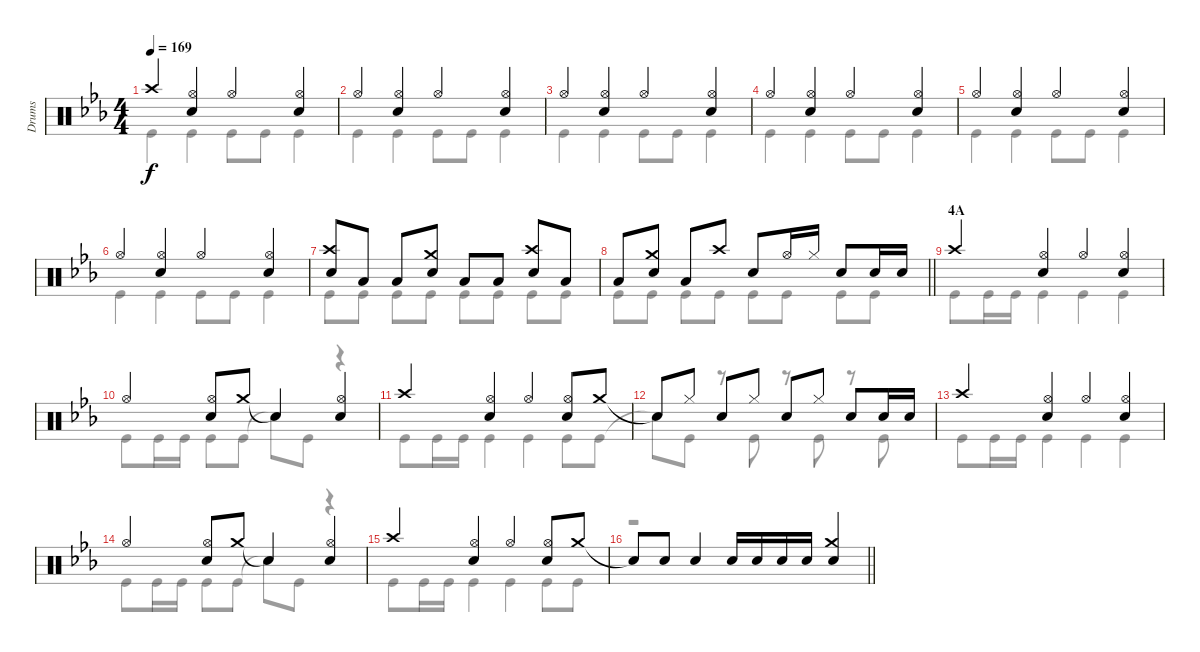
\track ("Drums" "Drums") {instrument percussion}
\staff {score}
\articulation defaults
\voice
\ts (4 4)
\tempo 169
\clef neutral
\ks eb "Crash high (hit)".4{dy f}
("Hi-Hat (open)" "Snare (hit) 2").4 "Hi-Hat (open)".4 ("Hi-Hat (open)" "Snare (hit) 2").4 |
"Hi-Hat (open)".4 ("Hi-Hat (open)" "Snare (hit) 2").4 "Hi-Hat (open)".4 ("Hi-Hat (open)" "Snare (hit) 2").4 |
"Hi-Hat (open)".4 ("Hi-Hat (open)" "Snare (hit) 2").4 "Hi-Hat (open)".4 ("Hi-Hat (open)" "Snare (hit) 2").4 |
"Hi-Hat (open)".4 ("Hi-Hat (open)" "Snare (hit) 2").4 "Hi-Hat (open)".4 ("Hi-Hat (open)" "Snare (hit) 2").4 |
"Hi-Hat (open)".4 ("Hi-Hat (open)" "Snare (hit) 2").4 "Hi-Hat (open)".4 ("Hi-Hat (open)" "Snare (hit) 2").4 |
"Hi-Hat (open)".4 ("Hi-Hat (open)" "Snare (hit) 2").4 "Hi-Hat (open)".4 ("Hi-Hat (open)" "Snare (hit) 2").4 |
("Crash high (hit)" "Snare (hit) 2").8 "Low Tom (hit)".8 "Low Tom (hit)".8 ("Crash medium (hit)" "Snare (hit) 2").8 "Low Tom (hit)".8 "Low Tom (hit)".8 ("Crash high (hit)" "Snare (hit) 2").8 "Low Tom (hit)".8 |
\barLineRight lightlight "Low Tom (hit)".8
("Crash medium (hit)" "Snare (hit) 2").8 "Low Tom (hit)".8 "Crash high (hit)".8 "Snare (hit) 2".8 "Hi-Hat (open)".16 "Hi-Hat (closed)".16 "Snare (hit) 2".8 "Snare (hit) 2".16 "Snare (hit) 2".16 |
\section ("" "4A")
"Crash high (hit)".4 ("Hi-Hat (open)" "Snare (hit) 2").4 "Hi-Hat (open)".4 ("Hi-Hat (open)" "Snare (hit) 2").4 |
"Hi-Hat (open)".4 ("Hi-Hat (open)" "Snare (hit) 2").8 "Crash medium (hit)".8 "Snare (hit)"{t}.4 ("Hi-Hat (open)" "Snare (hit) 2").4 |
"Crash high (hit)".4 ("Hi-Hat (open)" "Snare (hit) 2").4 "Hi-Hat (open)".4 ("Hi-Hat (open)" "Snare (hit) 2").8 "Crash medium (hit)".8 |
"Snare (hit)"{t}.8 "Hi-Hat (closed)".8 "Snare (hit) 2".8 "Hi-Hat (closed)".8 "Snare (hit) 2".8 "Hi-Hat (closed)".8 "Snare (hit) 2".8 "Snare (hit) 2".16 "Snare (hit) 2".16 |
"Crash high (hit)".4 ("Hi-Hat (open)" "Snare (hit) 2").4 "Hi-Hat (open)".4 ("Hi-Hat (open)" "Snare (hit) 2").4 |
"Hi-Hat (open)".4 ("Hi-Hat (open)" "Snare (hit) 2").8 "Crash medium (hit)".8 "Snare (hit)"{t}.4 ("Hi-Hat (open)" "Snare (hit) 2").4 |
"Crash high (hit)".4 ("Hi-Hat (open)" "Snare (hit) 2").4 "Hi-Hat (open)".4 ("Hi-Hat (open)" "Snare (hit) 2").8 "Crash medium (hit)".8 |
\barLineRight lightlight "Snare (hit)"{t}.8 "Snare (hit) 2".8 "Snare (hit) 2".4 "Snare (hit) 2".16 "Snare (hit) 2".16 "Snare (hit) 2".16 "Snare (hit) 2".16
("Crash medium (hit)" "Snare (hit) 2").4
\voice
\clef neutral
\ottava regular
\simile none
\ks eb "Kick (hit)".4{dy f} "Kick (hit)".4 "Kick (hit)".8 "Kick (hit)".8 "Kick (hit)".4
|
"Kick (hit)".4 "Kick (hit)".4 "Kick (hit)".8 "Kick (hit)".8 "Kick (hit)".4 |
"Kick (hit)".4 "Kick (hit)".4 "Kick (hit)".8 "Kick (hit)".8 "Kick (hit)".4 |
"Kick (hit)".4 "Kick (hit)".4 "Kick (hit)".8 "Kick (hit)".8 "Kick (hit)".4 |
"Kick (hit)".4 "Kick (hit)".4 "Kick (hit)".8 "Kick (hit)".8 "Kick (hit)".4 |
"Kick (hit)".4 "Kick (hit)".4 "Kick (hit)".8 "Kick (hit)".8 "Kick (hit)".4 |
"Kick (hit)".8 "Kick (hit)".8 "Kick (hit)".8 "Kick (hit)".8 "Kick (hit)".8 "Kick (hit)".8 "Kick (hit)".8 "Kick (hit)".8 |
\barLineRight lightlight "Kick (hit)".8 "Kick (hit)".8 "Kick (hit)".8 "Kick (hit)".8 "Kick (hit)".8 "Kick (hit)".8 "Kick (hit)".8 "Kick (hit)".8
|
"Kick (hit)".8 "Kick (hit)".16 "Kick (hit)".16 "Kick (hit)".4 "Kick (hit)".4 "Kick (hit)".4 |
"Kick (hit)".8 "Kick (hit)".16 "Kick (hit)".16 "Kick (hit)".8 "Kick (hit)".8 "Snare (hit)"{t}.8 "Kick (hit)".8 r.4 |
"Kick (hit)".8 "Kick (hit)".16 "Kick (hit)".16 "Kick (hit)".4 "Kick (hit)".4 "Kick (hit)".8 "Kick (hit)".8 |
"Snare (hit)"{t}.8 "Kick (hit)".8 r.8 "Kick (hit)".8 r.8 "Kick (hit)".8 r.8 "Kick (hit)".8 |
"Kick (hit)".8 "Kick (hit)".16 "Kick (hit)".16 "Kick (hit)".4 "Kick (hit)".4 "Kick (hit)".4 |
"Kick (hit)".8 "Kick (hit)".16 "Kick (hit)".16 "Kick (hit)".8 "Kick (hit)".8 "Snare (hit)"{t}.8 "Kick (hit)".8 r.4 |
"Kick (hit)".8 "Kick (hit)".16 "Kick (hit)".16 "Kick (hit)".4 "Kick (hit)".4 "Kick (hit)".8 "Kick (hit)".8 |
\barLineRight lightlight
r.1
